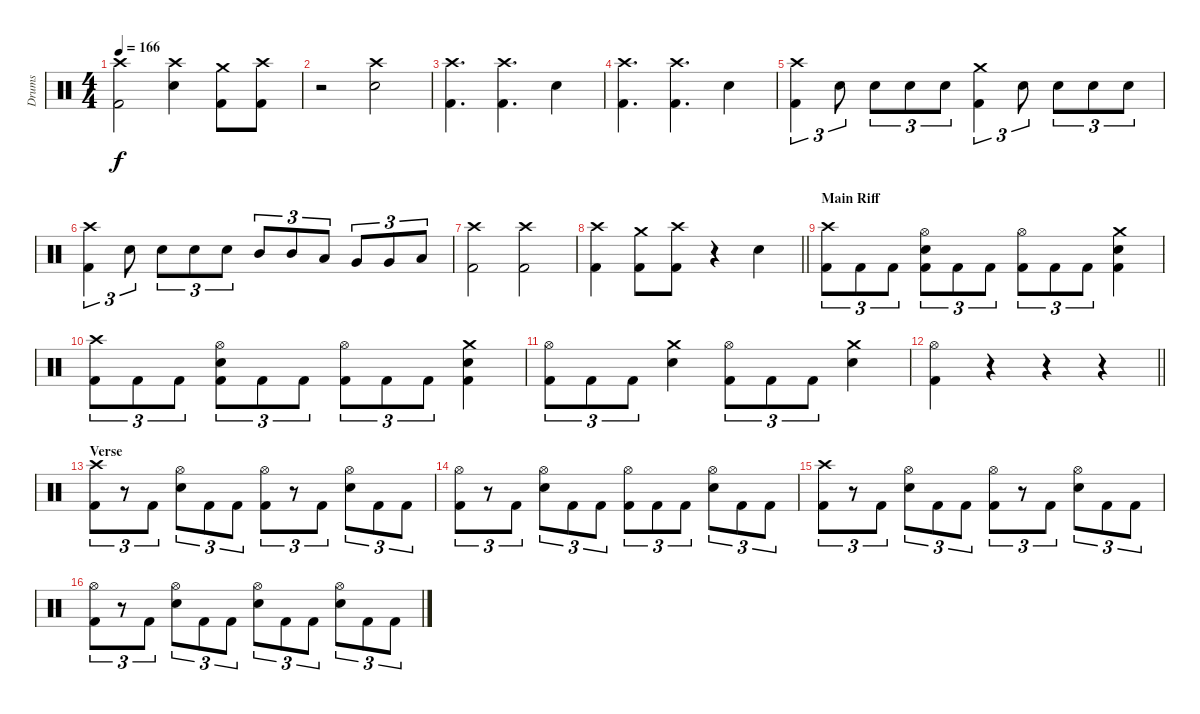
\track ("Drums" "Drums") {instrument percussion}
\staff {score}
\articulation defaults
\ts (4 4)
\tempo 166
\clef neutral
\ks c
("Crash high (hit)" "Kick (hit) 2").2{dy f} ("Crash high (hit)" "Snare (hit) 2").4 ("Crash medium (hit)" "Kick (hit) 2").8 ("Crash high (hit)" "Kick (hit) 2").8 |
r.2 ("Crash high (hit)" "Snare (hit) 2").2 |
("Crash high (hit)" "Kick (hit) 2").4{d} ("Crash high (hit)" "Kick (hit) 2").4{d} "Snare (hit) 2".4 |
("Crash high (hit)" "Kick (hit) 2").4{d} ("Crash high (hit)" "Kick (hit) 2").4{d} "Snare (hit) 2".4 |
("Crash high (hit)" "Kick (hit) 2").4{tu (3 2)} "Snare (hit) 2".8{tu (3 2)} "Snare (hit) 2".8{tu (3 2)} "Snare (hit) 2".8{tu (3 2)} "Snare (hit) 2".8{tu (3 2)} ("Crash medium (hit)" "Kick (hit) 2").4{tu (3 2)} "Snare (hit) 2".8{tu (3 2)} "Snare (hit) 2".8{tu (3 2)} "Snare (hit) 2".8{tu (3 2)} "Snare (hit) 2".8{tu (3 2)} |
("Crash high (hit)" "Kick (hit) 2").4{tu (3 2)} "Snare (hit) 2".8{tu (3 2)} "Snare (hit) 2".8{tu (3 2)} "Snare (hit) 2".8{tu (3 2)} "Snare (hit) 2".8{tu (3 2)} "Mid Tom (hit)".8{tu (3 2)} "Mid Tom (hit)".8{tu (3 2)} "Low Tom (hit)".8{tu (3 2)} "Very Low Tom (hit)".8{tu (3 2)} "Very Low Tom (hit)".8{tu (3 2)} "Low Floor Tom (hit)".8{tu (3 2)} |
("Crash high (hit)" "Kick (hit) 2").2 ("Crash high (hit)" "Kick (hit) 2").2 |
\barLineRight lightlight
("Crash high (hit)" "Kick (hit) 2").4 ("Crash medium (hit)" "Kick (hit) 2").8 ("Crash high (hit)" "Kick (hit) 2").8 r.4 "Snare (hit) 2".4 |
\section ("" "Main Riff")
("Crash high (hit)" "Kick (hit) 2").8{tu (3 2)} "Kick (hit) 2".8{tu (3 2)} "Kick (hit) 2".8{tu (3 2)} ("Hi-Hat (open)" "Snare (hit) 2" "Kick (hit) 2").8{tu (3 2)} "Kick (hit) 2".8{tu (3 2)} "Kick (hit) 2".8{tu (3 2)} ("Hi-Hat (open)" "Kick (hit) 2").8{tu (3 2)} "Kick (hit) 2".8{tu (3 2)} "Kick (hit) 2".8{tu (3 2)} ("Crash medium (hit)" "Snare (hit) 2" "Kick (hit) 2").4 |
("Crash high (hit)" "Kick (hit) 2").8{tu (3 2)} "Kick (hit) 2".8{tu (3 2)} "Kick (hit) 2".8{tu (3 2)} ("Hi-Hat (open)" "Snare (hit) 2" "Kick (hit) 2").8{tu (3 2)} "Kick (hit) 2".8{tu (3 2)} "Kick (hit) 2".8{tu (3 2)} ("Hi-Hat (open)" "Kick (hit) 2").8{tu (3 2)} "Kick (hit) 2".8{tu (3 2)} "Kick (hit) 2".8{tu (3 2)} ("Crash medium (hit)" "Snare (hit) 2" "Kick (hit) 2").4 |
("Hi-Hat (open)" "Kick (hit) 2").8{tu (3 2)} "Kick (hit) 2".8{tu (3 2)} "Kick (hit) 2".8{tu (3 2)} ("Crash medium (hit)" "Snare (hit) 2").4 ("Hi-Hat (open)" "Kick (hit) 2").8{tu (3 2)} "Kick (hit) 2".8{tu (3 2)} "Kick (hit) 2".8{tu (3 2)} ("Crash medium (hit)" "Snare (hit) 2").4 |
\barLineRight lightlight
("Hi-Hat (open)" "Kick (hit) 2").4 r.4 r.4 r.4 |
\section ("" "Verse")
("Crash high (hit)" "Kick (hit) 2").8{tu (3 2)} r.8{tu (3 2)} "Kick (hit) 2".8{tu (3 2)} ("Hi-Hat (open)" "Snare (hit) 2").8{tu (3 2)} "Kick (hit) 2".8{tu (3 2)} "Kick (hit) 2".8{tu (3 2)} ("Hi-Hat (open)" "Kick (hit) 2").8{tu (3 2)} r.8{tu (3 2)} "Kick (hit) 2".8{tu (3 2)} ("Hi-Hat (open)" "Snare (hit) 2").8{tu (3 2)} "Kick (hit) 2".8{tu (3 2)} "Kick (hit) 2".8{tu (3 2)} |
("Hi-Hat (open)" "Kick (hit) 2").8{tu (3 2)} r.8{tu (3 2)} "Kick (hit) 2".8{tu (3 2)} ("Hi-Hat (open)" "Snare (hit) 2").8{tu (3 2)} "Kick (hit) 2".8{tu (3 2)} "Kick (hit) 2".8{tu (3 2)} ("Hi-Hat (open)" "Kick (hit) 2").8{tu (3 2)} "Kick (hit) 2".8{tu (3 2)} "Kick (hit) 2".8{tu (3 2)} ("Hi-Hat (open)" "Snare (hit) 2").8{tu (3 2)} "Kick (hit) 2".8{tu (3 2)} "Kick (hit) 2".8{tu (3 2)} |
("Crash high (hit)" "Kick (hit) 2").8{tu (3 2)} r.8{tu (3 2)} "Kick (hit) 2".8{tu (3 2)} ("Hi-Hat (open)" "Snare (hit) 2").8{tu (3 2)} "Kick (hit) 2".8{tu (3 2)} "Kick (hit) 2".8{tu (3 2)} ("Hi-Hat (open)" "Kick (hit) 2").8{tu (3 2)} r.8{tu (3 2)} "Kick (hit) 2".8{tu (3 2)} ("Hi-Hat (open)" "Snare (hit) 2").8{tu (3 2)} "Kick (hit) 2".8{tu (3 2)} "Kick (hit) 2".8{tu (3 2)} |
("Hi-Hat (open)" "Kick (hit) 2").8{tu (3 2)} r.8{tu (3 2)} "Kick (hit) 2".8{tu (3 2)} ("Hi-Hat (open)" "Snare (hit) 2").8{tu (3 2)} "Kick (hit) 2".8{tu (3 2)} "Kick (hit) 2".8{tu (3 2)} ("Hi-Hat (open)" "Snare (hit) 2").8{tu (3 2)} "Kick (hit) 2".8{tu (3 2)} "Kick (hit) 2".8{tu (3 2)} ("Hi-Hat (open)" "Snare (hit) 2").8{tu (3 2)} "Kick (hit) 2".8{tu (3 2)} "Kick (hit) 2".8{tu (3 2)}
